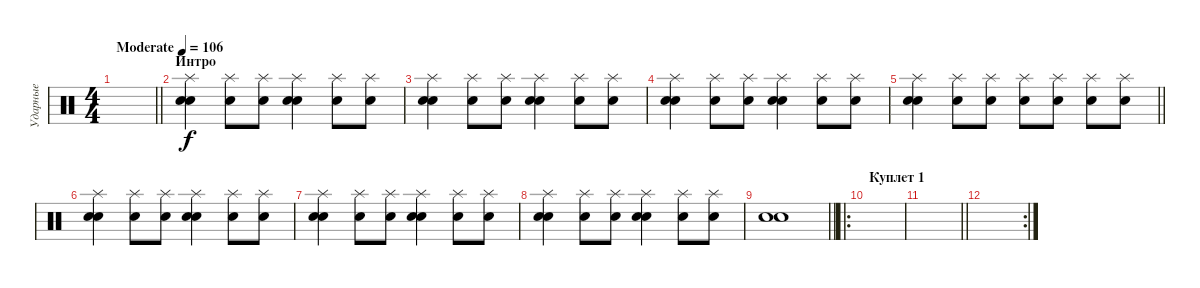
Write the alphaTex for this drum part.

\track ("Ударные" "Ударные") {instrument percussion}
\staff {score}
\articulation defaults
\ts (4 4)
\tempo (106 "Moderate")
\clef neutral
\barLineRight lightlight
\ks c
|
\section ("" "Интро")
("Snare (hit) 2" "Electric Snare (hit)" "Splash (hit)").4 ("Electric Snare (hit)" "Splash (hit)").8 ("Electric Snare (hit)" "Splash (hit)").8 ("Snare (hit) 2" "Electric Snare (hit)" "Splash (hit)").4 ("Electric Snare (hit)" "Splash (hit)").8 ("Electric Snare (hit)" "Splash (hit)").8 |
("Snare (hit) 2" "Electric Snare (hit)" "Splash (hit)").4 ("Electric Snare (hit)" "Splash (hit)").8 ("Electric Snare (hit)" "Splash (hit)").8 ("Snare (hit) 2" "Electric Snare (hit)" "Splash (hit)").4 ("Electric Snare (hit)" "Splash (hit)").8 ("Electric Snare (hit)" "Splash (hit)").8 |
("Snare (hit) 2" "Electric Snare (hit)" "Splash (hit)").4 ("Electric Snare (hit)" "Splash (hit)").8 ("Electric Snare (hit)" "Splash (hit)").8 ("Snare (hit) 2" "Electric Snare (hit)" "Splash (hit)").4 ("Electric Snare (hit)" "Splash (hit)").8 ("Electric Snare (hit)" "Splash (hit)").8 |
\barLineRight lightlight
("Snare (hit) 2" "Electric Snare (hit)" "Splash (hit)").4 ("Electric Snare (hit)" "Splash (hit)").8 ("Electric Snare (hit)" "Splash (hit)").8 ("Electric Snare (hit)" "Splash (hit)").8 ("Electric Snare (hit)" "Splash (hit)").8 ("Electric Snare (hit)" "Splash (hit)").8 ("Electric Snare (hit)" "Splash (hit)").8 |
("Snare (hit) 2" "Electric Snare (hit)" "Splash (hit)").4 ("Electric Snare (hit)" "Splash (hit)").8 ("Electric Snare (hit)" "Splash (hit)").8 ("Snare (hit) 2" "Electric Snare (hit)" "Splash (hit)").4 ("Electric Snare (hit)" "Splash (hit)").8 ("Electric Snare (hit)" "Splash (hit)").8 |
("Snare (hit) 2" "Electric Snare (hit)" "Splash (hit)").4 ("Electric Snare (hit)" "Splash (hit)").8 ("Electric Snare (hit)" "Splash (hit)").8 ("Snare (hit) 2" "Electric Snare (hit)" "Splash (hit)").4 ("Electric Snare (hit)" "Splash (hit)").8 ("Electric Snare (hit)" "Splash (hit)").8 |
("Snare (hit) 2" "Electric Snare (hit)" "Splash (hit)").4 ("Electric Snare (hit)" "Splash (hit)").8 ("Electric Snare (hit)" "Splash (hit)").8 ("Snare (hit) 2" "Electric Snare (hit)" "Splash (hit)").4 ("Electric Snare (hit)" "Splash (hit)").8 ("Electric Snare (hit)" "Splash (hit)").8 |
\barLineRight lightlight
("Snare (hit) 2" "Electric Snare (hit)").1 |
\ro
\section ("" "Куплет 1")
|
\barLineRight lightlight
|
\rc 2
